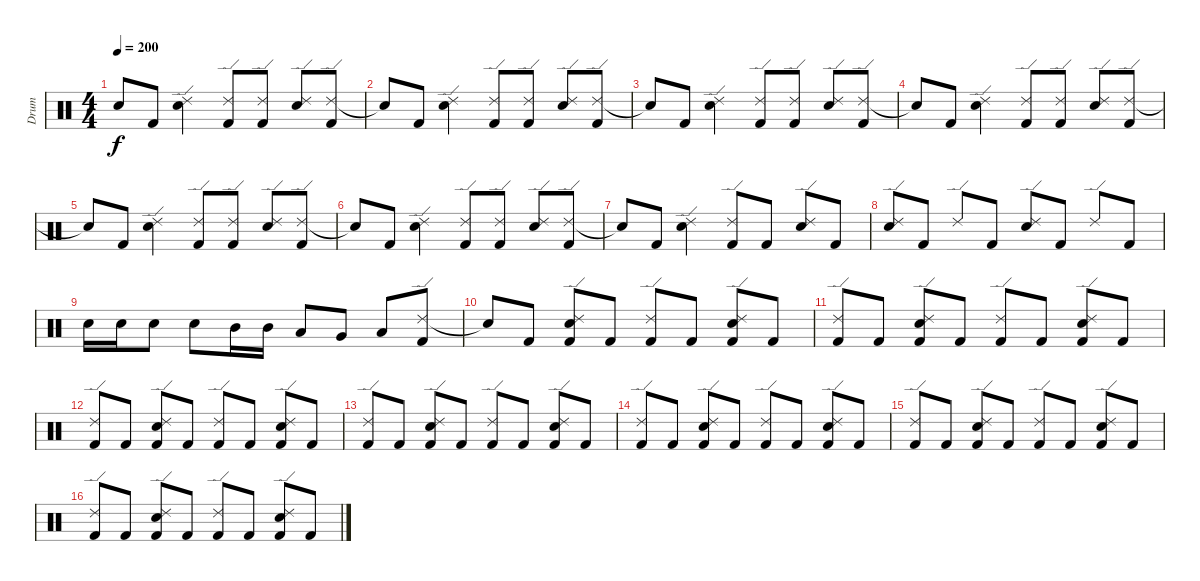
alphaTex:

\track ("Drum" "Drum") {instrument percussion}
\staff {score}
\articulation defaults
\ts (4 4)
\tempo 200
\clef neutral
\ks c "Snare (hit)"{t}.8{dy f} "Kick (hit) 2".8
("Ride (edge) 2" "Electric Snare (hit)").4 ("Ride (edge) 2" "Kick (hit) 2").8 ("Ride (edge) 2" "Kick (hit) 2").8 ("Ride (edge) 2" "Electric Snare (hit)").8 ("Ride (edge) 2" "Kick (hit) 2").8 |
"Snare (hit)"{t}.8 "Kick (hit) 2".8 ("Ride (edge) 2" "Electric Snare (hit)").4 ("Ride (edge) 2" "Kick (hit) 2").8 ("Ride (edge) 2" "Kick (hit) 2").8 ("Ride (edge) 2" "Electric Snare (hit)").8 ("Ride (edge) 2" "Kick (hit) 2").8 |
"Snare (hit)"{t}.8 "Kick (hit) 2".8 ("Ride (edge) 2" "Electric Snare (hit)").4 ("Ride (edge) 2" "Kick (hit) 2").8 ("Ride (edge) 2" "Kick (hit) 2").8 ("Ride (edge) 2" "Electric Snare (hit)").8 ("Ride (edge) 2" "Kick (hit) 2").8 |
"Snare (hit)"{t}.8 "Kick (hit) 2".8 ("Ride (edge) 2" "Electric Snare (hit)").4 ("Ride (edge) 2" "Kick (hit) 2").8 ("Ride (edge) 2" "Kick (hit) 2").8 ("Ride (edge) 2" "Electric Snare (hit)").8 ("Ride (edge) 2" "Kick (hit) 2").8 |
"Snare (hit)"{t}.8 "Kick (hit) 2".8 ("Ride (edge) 2" "Electric Snare (hit)").4 ("Ride (edge) 2" "Kick (hit) 2").8 ("Ride (edge) 2" "Kick (hit) 2").8 ("Ride (edge) 2" "Electric Snare (hit)").8 ("Ride (edge) 2" "Kick (hit) 2").8 |
"Snare (hit)"{t}.8 "Kick (hit) 2".8 ("Ride (edge) 2" "Electric Snare (hit)").4 ("Ride (edge) 2" "Kick (hit) 2").8 ("Ride (edge) 2" "Kick (hit) 2").8 ("Ride (edge) 2" "Electric Snare (hit)").8 ("Ride (edge) 2" "Kick (hit) 2").8 |
"Snare (hit)"{t}.8 "Kick (hit) 2".8 ("Ride (edge) 2" "Electric Snare (hit)").4 ("Ride (edge) 2" "Kick (hit) 2").8 "Kick (hit) 2".8 ("Ride (edge) 2" "Electric Snare (hit)").8 "Kick (hit) 2".8 |
("Ride (edge) 2" "Electric Snare (hit)").8 "Kick (hit) 2".8 "Ride (edge) 2".8 "Kick (hit) 2".8 ("Ride (edge) 2" "Electric Snare (hit)").8 "Kick (hit) 2".8 "Ride (edge) 2".8 "Kick (hit) 2".8 |
"Electric Snare (hit)".16 "Electric Snare (hit)".16 "Electric Snare (hit)".8 "Electric Snare (hit)".8 "Mid Tom (hit)".16 "Mid Tom (hit)".16 "Low Tom (hit)".8 "Very Low Tom (hit)".8 "Low Floor Tom (hit)".8 ("Ride (edge) 2" "Kick (hit) 2").8 |
"Snare (hit)"{t}.8 "Kick (hit) 2".8 ("Ride (edge) 2" "Electric Snare (hit)" "Kick (hit) 2").8 "Kick (hit) 2".8 ("Ride (edge) 2" "Kick (hit) 2").8 "Kick (hit) 2".8 ("Ride (edge) 2" "Electric Snare (hit)" "Kick (hit) 2").8 "Kick (hit) 2".8 |
("Ride (edge) 2" "Kick (hit) 2").8 "Kick (hit) 2".8 ("Ride (edge) 2" "Electric Snare (hit)" "Kick (hit) 2").8 "Kick (hit) 2".8 ("Ride (edge) 2" "Kick (hit) 2").8 "Kick (hit) 2".8 ("Ride (edge) 2" "Electric Snare (hit)" "Kick (hit) 2").8 "Kick (hit) 2".8 |
("Ride (edge) 2" "Kick (hit) 2").8 "Kick (hit) 2".8 ("Ride (edge) 2" "Electric Snare (hit)" "Kick (hit) 2").8 "Kick (hit) 2".8 ("Ride (edge) 2" "Kick (hit) 2").8 "Kick (hit) 2".8 ("Ride (edge) 2" "Electric Snare (hit)" "Kick (hit) 2").8 "Kick (hit) 2".8 |
("Ride (edge) 2" "Kick (hit) 2").8 "Kick (hit) 2".8 ("Ride (edge) 2" "Electric Snare (hit)" "Kick (hit) 2").8 "Kick (hit) 2".8 ("Ride (edge) 2" "Kick (hit) 2").8 "Kick (hit) 2".8 ("Ride (edge) 2" "Electric Snare (hit)" "Kick (hit) 2").8 "Kick (hit) 2".8 |
("Ride (edge) 2" "Kick (hit) 2").8 "Kick (hit) 2".8 ("Ride (edge) 2" "Electric Snare (hit)" "Kick (hit) 2").8 "Kick (hit) 2".8 ("Ride (edge) 2" "Kick (hit) 2").8 "Kick (hit) 2".8 ("Ride (edge) 2" "Electric Snare (hit)" "Kick (hit) 2").8 "Kick (hit) 2".8 |
("Ride (edge) 2" "Kick (hit) 2").8 "Kick (hit) 2".8 ("Ride (edge) 2" "Electric Snare (hit)" "Kick (hit) 2").8 "Kick (hit) 2".8 ("Ride (edge) 2" "Kick (hit) 2").8 "Kick (hit) 2".8 ("Ride (edge) 2" "Electric Snare (hit)" "Kick (hit) 2").8 "Kick (hit) 2".8 |
("Ride (edge) 2" "Kick (hit) 2").8 "Kick (hit) 2".8 ("Ride (edge) 2" "Electric Snare (hit)" "Kick (hit) 2").8 "Kick (hit) 2".8 ("Ride (edge) 2" "Kick (hit) 2").8 "Kick (hit) 2".8 ("Ride (edge) 2" "Electric Snare (hit)" "Kick (hit) 2").8 "Kick (hit) 2".8
